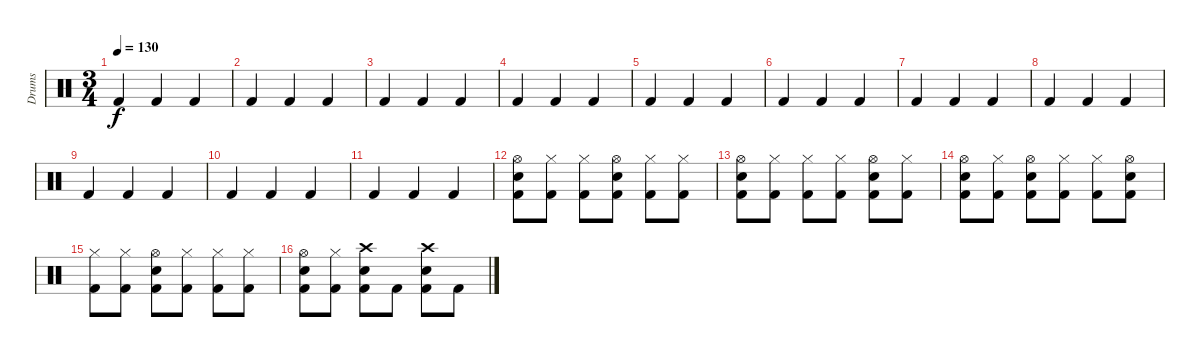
\track ("Drums" "Drums") {instrument percussion}
\staff {score}
\articulation defaults
\ts (3 4)
\tempo 130
\clef neutral
\ks c "Kick (hit) 2".4{dy f} "Kick (hit) 2".4 "Kick (hit) 2".4
|
"Kick (hit) 2".4 "Kick (hit) 2".4 "Kick (hit) 2".4 |
"Kick (hit) 2".4 "Kick (hit) 2".4 "Kick (hit) 2".4 |
"Kick (hit) 2".4 "Kick (hit) 2".4 "Kick (hit) 2".4 |
"Kick (hit) 2".4 "Kick (hit) 2".4 "Kick (hit) 2".4 |
"Kick (hit) 2".4 "Kick (hit) 2".4 "Kick (hit) 2".4 |
"Kick (hit) 2".4 "Kick (hit) 2".4 "Kick (hit) 2".4 |
"Kick (hit) 2".4 "Kick (hit) 2".4 "Kick (hit) 2".4 |
"Kick (hit) 2".4 "Kick (hit) 2".4 "Kick (hit) 2".4 |
"Kick (hit) 2".4 "Kick (hit) 2".4 "Kick (hit) 2".4 |
"Kick (hit) 2".4 "Kick (hit) 2".4 "Kick (hit) 2".4 |
("Hi-Hat (open)" "Snare (hit) 2" "Kick (hit) 2").8 ("Hi-Hat (closed)" "Kick (hit) 2").8 ("Hi-Hat (closed)" "Kick (hit) 2").8 ("Hi-Hat (open)" "Snare (hit) 2" "Kick (hit) 2").8 ("Hi-Hat (closed)" "Kick (hit) 2").8 ("Hi-Hat (closed)" "Kick (hit) 2").8 |
("Hi-Hat (open)" "Snare (hit) 2" "Kick (hit) 2").8 ("Hi-Hat (closed)" "Kick (hit) 2").8 ("Hi-Hat (closed)" "Kick (hit) 2").8 ("Hi-Hat (closed)" "Kick (hit) 2").8 ("Hi-Hat (open)" "Snare (hit) 2" "Kick (hit) 2").8 ("Hi-Hat (closed)" "Kick (hit) 2").8 |
("Hi-Hat (open)" "Snare (hit) 2" "Kick (hit) 2").8 ("Hi-Hat (closed)" "Kick (hit) 2").8 ("Hi-Hat (open)" "Snare (hit) 2" "Kick (hit) 2").8 ("Hi-Hat (closed)" "Kick (hit) 2").8 ("Hi-Hat (closed)" "Kick (hit) 2").8 ("Hi-Hat (open)" "Snare (hit) 2" "Kick (hit) 2").8 |
("Hi-Hat (closed)" "Kick (hit) 2").8 ("Hi-Hat (closed)" "Kick (hit) 2").8 ("Hi-Hat (open)" "Snare (hit) 2" "Kick (hit) 2").8 ("Hi-Hat (closed)" "Kick (hit) 2").8 ("Hi-Hat (closed)" "Kick (hit) 2").8 ("Hi-Hat (closed)" "Kick (hit) 2").8 |
("Hi-Hat (open)" "Snare (hit) 2" "Kick (hit) 2").8 ("Hi-Hat (closed)" "Kick (hit) 2").8 ("Crash high (hit)" "Snare (hit) 2" "Kick (hit) 2").8 "Kick (hit) 2".8 ("Crash high (hit)" "Snare (hit) 2" "Kick (hit) 2").8 "Kick (hit) 2".8
